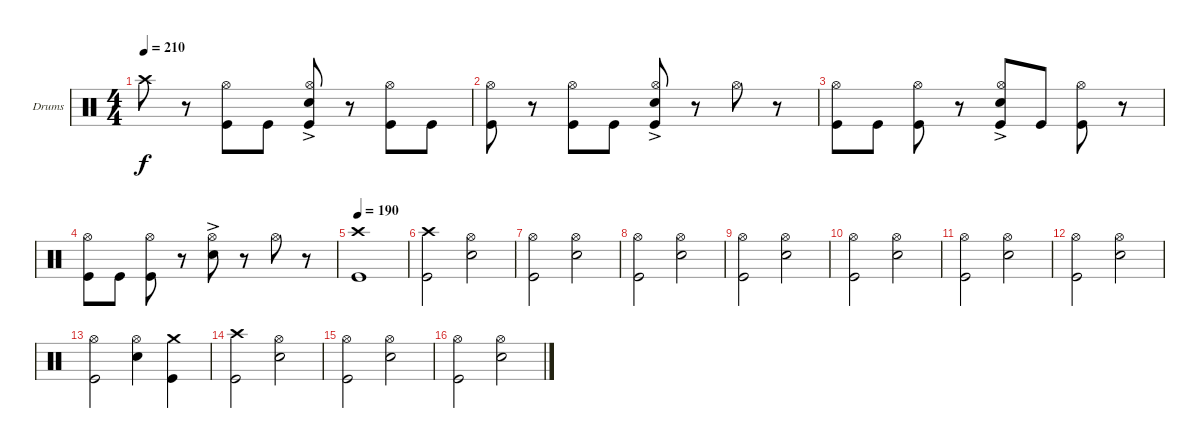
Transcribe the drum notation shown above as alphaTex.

\defaultSystemsLayout 4
\bracketExtendMode groupsimilarinstruments
\firstSystemTrackNameOrientation horizontal
\otherSystemsTrackNameOrientation horizontal
\track ("Drumkit" "Drums") {instrument percussion}
\staff {score}
\articulation defaults
\ts (4 4)
\tempo 210
\clef neutral
\ks c "Crash high (hit)"{t}.8{dy f}
r.8 ("Kick (hit)" "Hi-Hat (open)").8 "Kick (hit)".8 ("Snare (hit) 2"{ac} "Hi-Hat (open)" "Kick (hit)").8 r.8 ("Hi-Hat (open)" "Kick (hit)").8 "Kick (hit)".8 |
("Kick (hit)" "Hi-Hat (open)").8 r.8 ("Hi-Hat (open)" "Kick (hit)").8 "Kick (hit)".8 ("Hi-Hat (open)" "Snare (hit) 2"{ac} "Kick (hit)").8 r.8 "Hi-Hat (open)".8 r.8 |
("Kick (hit)" "Hi-Hat (open)").8 "Kick (hit)".8 ("Kick (hit)" "Hi-Hat (open)").8 r.8 ("Snare (hit) 2"{ac} "Hi-Hat (open)" "Kick (hit)").8 "Kick (hit)".8 ("Kick (hit)" "Hi-Hat (open)").8 r.8 |
("Kick (hit)" "Hi-Hat (open)").8 "Kick (hit)".8 ("Kick (hit)" "Hi-Hat (open)").8 r.8 ("Snare (hit) 2"{ac} "Hi-Hat (open)").8 r.8 "Hi-Hat (open)".8 r.8 |
\tempo 190
("Kick (hit)" "Crash high (hit)").1 |
("Kick (hit)" "Crash high (hit)").2 ("Snare (hit) 2" "Hi-Hat (open)").2 |
("Kick (hit)" "Hi-Hat (open)").2 ("Snare (hit) 2" "Hi-Hat (open)").2 |
("Kick (hit)" "Hi-Hat (open)").2 ("Snare (hit) 2" "Hi-Hat (open)").2 |
("Kick (hit)" "Hi-Hat (open)").2 ("Snare (hit) 2" "Hi-Hat (open)").2 |
("Kick (hit)" "Hi-Hat (open)").2 ("Snare (hit) 2" "Hi-Hat (open)").2 |
("Kick (hit)" "Hi-Hat (open)").2 ("Snare (hit) 2" "Hi-Hat (open)").2 |
("Kick (hit)" "Hi-Hat (open)").2 ("Snare (hit) 2" "Hi-Hat (open)").2 |
("Kick (hit)" "Hi-Hat (open)").2 ("Snare (hit) 2" "Hi-Hat (open)").4 ("Kick (hit)" "Crash medium (hit)").4 |
("Kick (hit)" "Crash high (hit)").2 ("Snare (hit) 2" "Hi-Hat (open)").2 |
("Kick (hit)" "Hi-Hat (open)").2 ("Snare (hit) 2" "Hi-Hat (open)").2 |
("Kick (hit)" "Hi-Hat (open)").2 ("Snare (hit) 2" "Hi-Hat (open)").2
